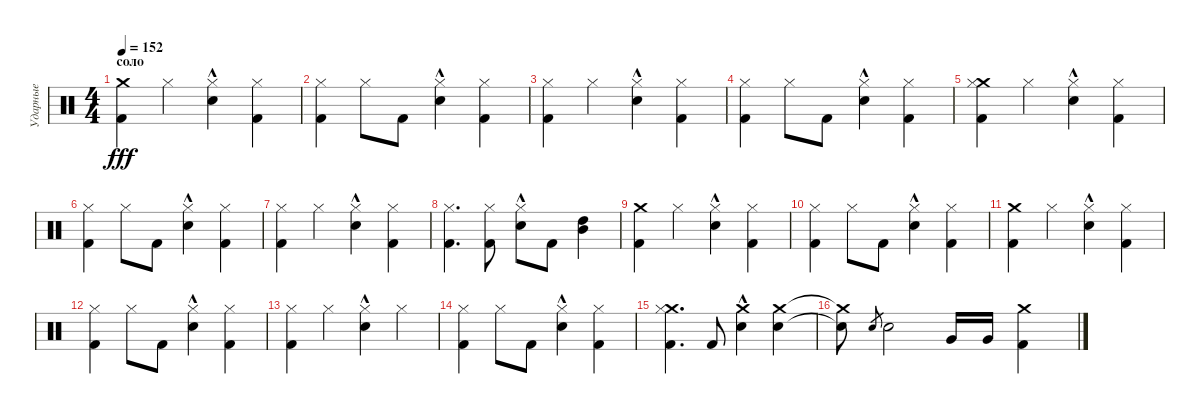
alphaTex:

\track ("Ударные" "Ударные") {instrument percussion}
\staff {score}
\articulation defaults
\ts (4 4)
\section ("" "соло")
\tempo 152
\clef neutral
\ks c
("Crash medium (hit)" "Kick (hit) 2").4{dy fff} "Hi-Hat (closed)".4 ("Hi-Hat (closed)" "Electric Snare (hit)"{hac}).4 ("Hi-Hat (closed)" "Kick (hit) 2").4 |
("Hi-Hat (closed)" "Kick (hit) 2").4 "Hi-Hat (closed)".8 "Kick (hit) 2".8 ("Hi-Hat (closed)" "Electric Snare (hit)"{hac}).4 ("Hi-Hat (closed)" "Kick (hit) 2").4 |
("Hi-Hat (closed)" "Kick (hit) 2").4 "Hi-Hat (closed)".4 ("Hi-Hat (closed)" "Electric Snare (hit)"{hac}).4 ("Hi-Hat (closed)" "Kick (hit) 2").4 |
("Hi-Hat (closed)" "Kick (hit) 2").4 "Hi-Hat (closed)".8 "Kick (hit) 2".8 ("Hi-Hat (closed)" "Electric Snare (hit)"{hac}).4 ("Hi-Hat (closed)" "Kick (hit) 2").4 |
("Crash medium (hit)" "Hi-Hat (closed)" "Kick (hit) 2").4 "Hi-Hat (closed)".4 ("Hi-Hat (closed)" "Electric Snare (hit)"{hac}).4 ("Hi-Hat (closed)" "Kick (hit) 2").4 |
("Hi-Hat (closed)" "Kick (hit) 2").4 "Hi-Hat (closed)".8 "Kick (hit) 2".8 ("Hi-Hat (closed)" "Electric Snare (hit)"{hac}).4 ("Hi-Hat (closed)" "Kick (hit) 2").4 |
("Hi-Hat (closed)" "Kick (hit) 2").4 "Hi-Hat (closed)".4 ("Hi-Hat (closed)" "Electric Snare (hit)"{hac}).4 ("Hi-Hat (closed)" "Kick (hit) 2").4 |
("Hi-Hat (closed)" "Kick (hit) 2").4{d} ("Hi-Hat (closed)" "Kick (hit) 2").8 ("Hi-Hat (closed)" "Electric Snare (hit)"{hac}).8 "Kick (hit) 2".8 ("High Tom (hit)" "Mid Tom (hit)").4 |
("Crash medium (hit)" "Kick (hit) 2").4 "Hi-Hat (closed)".4 ("Hi-Hat (closed)" "Electric Snare (hit)"{hac}).4 ("Hi-Hat (closed)" "Kick (hit) 2").4 |
("Hi-Hat (closed)" "Kick (hit) 2").4 "Hi-Hat (closed)".8 "Kick (hit) 2".8 ("Hi-Hat (closed)" "Electric Snare (hit)"{hac}).4 ("Hi-Hat (closed)" "Kick (hit) 2").4 |
("Crash medium (hit)" "Kick (hit) 2").4 "Hi-Hat (closed)".4 ("Hi-Hat (closed)" "Electric Snare (hit)"{hac}).4 ("Hi-Hat (closed)" "Kick (hit) 2").4 |
("Hi-Hat (closed)" "Kick (hit) 2").4 "Hi-Hat (closed)".8 "Kick (hit) 2".8 ("Hi-Hat (closed)" "Electric Snare (hit)"{hac}).4 ("Hi-Hat (closed)" "Kick (hit) 2").4 |
("Hi-Hat (closed)" "Kick (hit) 2").4 "Hi-Hat (closed)".4 ("Hi-Hat (closed)" "Electric Snare (hit)"{hac}).4 "Hi-Hat (closed)".4 |
("Hi-Hat (closed)" "Kick (hit) 2").4 "Hi-Hat (closed)".8 "Kick (hit) 2".8 ("Hi-Hat (closed)" "Electric Snare (hit)"{hac}).4 ("Hi-Hat (closed)" "Kick (hit) 2").4 |
("Crash medium (hit)" "Hi-Hat (closed)" "Kick (hit) 2").4{d} "Kick (hit) 2".8 ("Crash medium (hit)" "Electric Snare (hit)"{hac}).4 ("Crash medium (hit)" "Electric Snare (hit)").4 |
("Crash medium (hit)"{t} "Electric Snare (hit)"{t}).8 "Electric Snare (hit)".8{gr} "Electric Snare (hit)".2 "Very Low Tom (hit)".16 "Very Low Tom (hit)".16 ("Crash medium (hit)" "Kick (hit) 2").4
